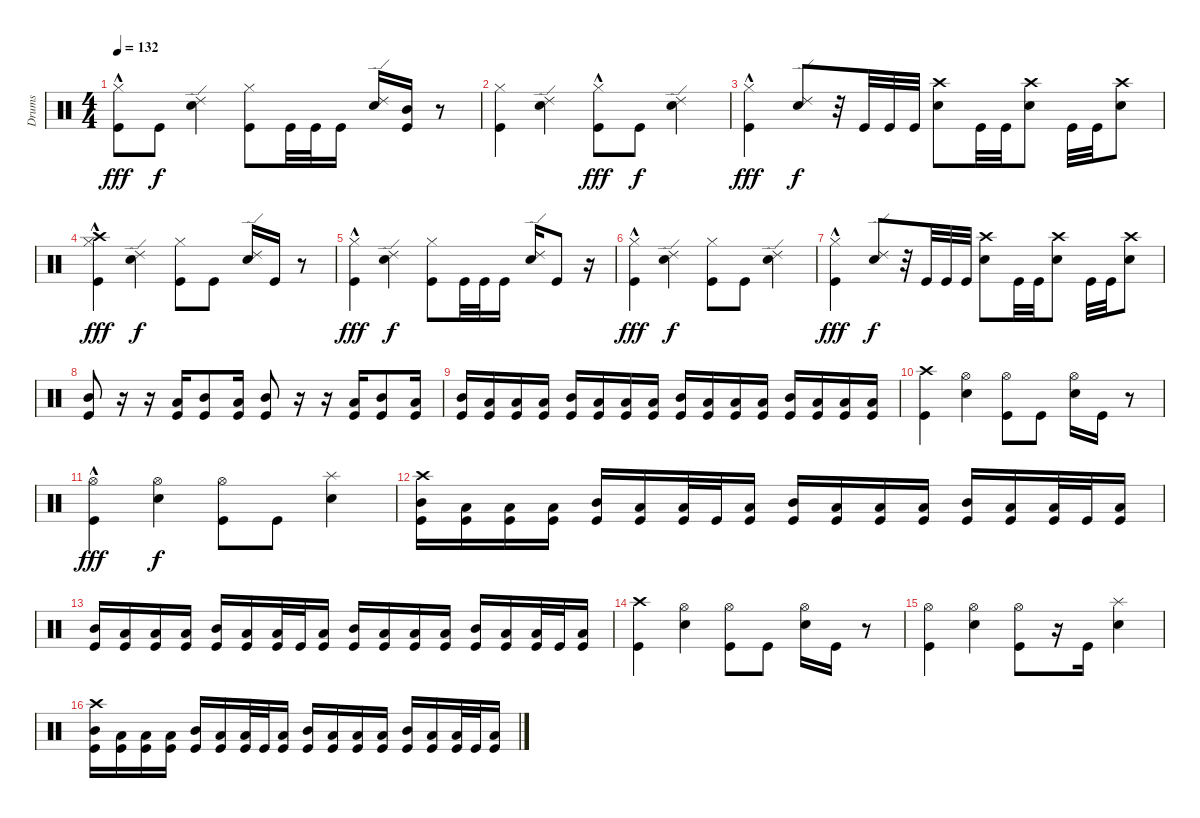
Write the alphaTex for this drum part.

\track ("Drums" "Drums") {instrument percussion}
\staff {score}
\articulation defaults
\ts (4 4)
\tempo 132
\clef neutral
\ks c
("Hi-Hat (closed)"{hac} "Kick (hit)").8{dy fff} "Kick (hit)".8{dy f} ("Ride (edge) 2" "Snare (hit) 2").4 ("Hi-Hat (closed)" "Kick (hit)").8 "Kick (hit)".32 "Kick (hit)".32 "Kick (hit)".16 ("Ride (edge) 2" "Snare (hit) 2").16 ("Mid Tom (hit)" "Kick (hit)").16 r.8 |
("Hi-Hat (closed)" "Kick (hit)").4 ("Ride (edge) 2" "Snare (hit) 2").4 ("Hi-Hat (closed)"{hac} "Kick (hit)").8{dy fff} "Kick (hit)".8{dy f} ("Ride (edge) 2" "Snare (hit) 2").4 |
("Hi-Hat (closed)"{hac} "Kick (hit)").4{dy fff} ("Ride (edge) 2" "Snare (hit) 2").8{dy f} r.32 "Kick (hit)".32 "Kick (hit)".32 "Kick (hit)".32 ("Crash high (hit)" "Snare (hit) 2").8 "Kick (hit)".32 "Kick (hit)".32 ("Crash high (hit)" "Snare (hit) 2").8 "Kick (hit)".32 "Kick (hit)".32 ("Crash high (hit)" "Snare (hit) 2").8 |
("Crash high (hit)" "Hi-Hat (closed)"{hac} "Kick (hit)").4{dy fff} ("Ride (edge) 2" "Snare (hit) 2").4{dy f} ("Hi-Hat (closed)" "Kick (hit)").8 "Kick (hit)".8 ("Ride (edge) 2" "Snare (hit) 2").16 "Kick (hit)".16 r.8 |
("Hi-Hat (closed)"{hac} "Kick (hit)").4{dy fff} ("Ride (edge) 2" "Snare (hit) 2").4{dy f} ("Hi-Hat (closed)" "Kick (hit)").8 "Kick (hit)".32 "Kick (hit)".32 "Kick (hit)".16 ("Ride (edge) 2" "Snare (hit) 2").16 "Kick (hit)".8 r.16 |
("Hi-Hat (closed)"{hac} "Kick (hit)").4{dy fff} ("Ride (edge) 2" "Snare (hit) 2").4{dy f} ("Hi-Hat (closed)" "Kick (hit)").8 "Kick (hit)".8 ("Ride (edge) 2" "Snare (hit) 2").4 |
("Hi-Hat (closed)"{hac} "Kick (hit)").4{dy fff} ("Ride (edge) 2" "Snare (hit) 2").8{dy f} r.32 "Kick (hit)".32 "Kick (hit)".32 "Kick (hit)".32 ("Crash high (hit)" "Snare (hit) 2").8 "Kick (hit)".32 "Kick (hit)".32 ("Crash high (hit)" "Snare (hit) 2").8 "Kick (hit)".32 "Kick (hit)".32 ("Crash high (hit)" "Snare (hit) 2").8 |
("Mid Tom (hit)" "Kick (hit)").8 r.16 r.16 ("Low Tom (hit)" "Kick (hit)").16 ("Mid Tom (hit)" "Kick (hit)").8 ("Low Tom (hit)" "Kick (hit)").16 ("Mid Tom (hit)" "Kick (hit)").8 r.16 r.16 ("Low Tom (hit)" "Kick (hit)").16 ("Mid Tom (hit)" "Kick (hit)").8 ("Low Tom (hit)" "Kick (hit)").16 |
("Mid Tom (hit)" "Kick (hit)").16 ("Low Tom (hit)" "Kick (hit)").16 ("Low Tom (hit)" "Kick (hit)").16 ("Low Tom (hit)" "Kick (hit)").16 ("Mid Tom (hit)" "Kick (hit)").16 ("Low Tom (hit)" "Kick (hit)").16 ("Low Tom (hit)" "Kick (hit)").16 ("Low Tom (hit)" "Kick (hit)").16 ("Mid Tom (hit)" "Kick (hit)").16 ("Low Tom (hit)" "Kick (hit)").16 ("Low Tom (hit)" "Kick (hit)").16 ("Low Tom (hit)" "Kick (hit)").16 ("Mid Tom (hit)" "Kick (hit)").16 ("Low Tom (hit)" "Kick (hit)").16 ("Low Tom (hit)" "Kick (hit)").16 ("Low Tom (hit)" "Kick (hit)").16 |
("Crash high (hit)" "Kick (hit)").4 ("Hi-Hat (open)" "Snare (hit) 2").4 ("Hi-Hat (open)" "Kick (hit)").8 "Kick (hit)".8 ("Hi-Hat (open)" "Snare (hit) 2").16 "Kick (hit)".16 r.8 |
("Hi-Hat (open)"{hac} "Kick (hit)").4{dy fff} ("Hi-Hat (open)" "Snare (hit) 2").4{dy f} ("Hi-Hat (open)" "Kick (hit)").8 "Kick (hit)".8 ("Splash (hit)" "Snare (hit) 2").4 |
("Crash high (hit)" "Mid Tom (hit)" "Kick (hit)").16 ("Low Tom (hit)" "Kick (hit)").16 ("Low Tom (hit)" "Kick (hit)").16 ("Low Tom (hit)" "Kick (hit)").16 ("Mid Tom (hit)" "Kick (hit)").16 ("Low Tom (hit)" "Kick (hit)").16 ("Low Tom (hit)" "Kick (hit)").32 "Kick (hit)".32 ("Low Tom (hit)" "Kick (hit)").16 ("Mid Tom (hit)" "Kick (hit)").16 ("Low Tom (hit)" "Kick (hit)").16 ("Low Tom (hit)" "Kick (hit)").16 ("Low Tom (hit)" "Kick (hit)").16 ("Mid Tom (hit)" "Kick (hit)").16 ("Low Tom (hit)" "Kick (hit)").16 ("Low Tom (hit)" "Kick (hit)").32 "Kick (hit)".32 ("Low Tom (hit)" "Kick (hit)").16 |
("Mid Tom (hit)" "Kick (hit)").16 ("Low Tom (hit)" "Kick (hit)").16 ("Low Tom (hit)" "Kick (hit)").16 ("Low Tom (hit)" "Kick (hit)").16 ("Mid Tom (hit)" "Kick (hit)").16 ("Low Tom (hit)" "Kick (hit)").16 ("Low Tom (hit)" "Kick (hit)").32 "Kick (hit)".32 ("Low Tom (hit)" "Kick (hit)").16 ("Mid Tom (hit)" "Kick (hit)").16 ("Low Tom (hit)" "Kick (hit)").16 ("Low Tom (hit)" "Kick (hit)").16 ("Low Tom (hit)" "Kick (hit)").16 ("Mid Tom (hit)" "Kick (hit)").16 ("Low Tom (hit)" "Kick (hit)").16 ("Low Tom (hit)" "Kick (hit)").32 "Kick (hit)".32 ("Low Tom (hit)" "Kick (hit)").16 |
("Crash high (hit)" "Kick (hit)").4 ("Hi-Hat (open)" "Snare (hit) 2").4 ("Hi-Hat (open)" "Kick (hit)").8 "Kick (hit)".8 ("Hi-Hat (open)" "Snare (hit) 2").16 "Kick (hit)".16 r.8 |
("Hi-Hat (open)" "Kick (hit)").4 ("Hi-Hat (open)" "Snare (hit) 2").4 ("Hi-Hat (open)" "Kick (hit)").8 r.16 "Kick (hit)".16 ("Splash (hit)" "Snare (hit) 2").4 |
("Crash high (hit)" "Mid Tom (hit)" "Kick (hit)").16 ("Low Tom (hit)" "Kick (hit)").16 ("Low Tom (hit)" "Kick (hit)").16 ("Low Tom (hit)" "Kick (hit)").16 ("Mid Tom (hit)" "Kick (hit)").16 ("Low Tom (hit)" "Kick (hit)").16 ("Low Tom (hit)" "Kick (hit)").32 "Kick (hit)".32 ("Low Tom (hit)" "Kick (hit)").16 ("Mid Tom (hit)" "Kick (hit)").16 ("Low Tom (hit)" "Kick (hit)").16 ("Low Tom (hit)" "Kick (hit)").16 ("Low Tom (hit)" "Kick (hit)").16 ("Mid Tom (hit)" "Kick (hit)").16 ("Low Tom (hit)" "Kick (hit)").16 ("Low Tom (hit)" "Kick (hit)").32 "Kick (hit)".32 ("Low Tom (hit)" "Kick (hit)").16
